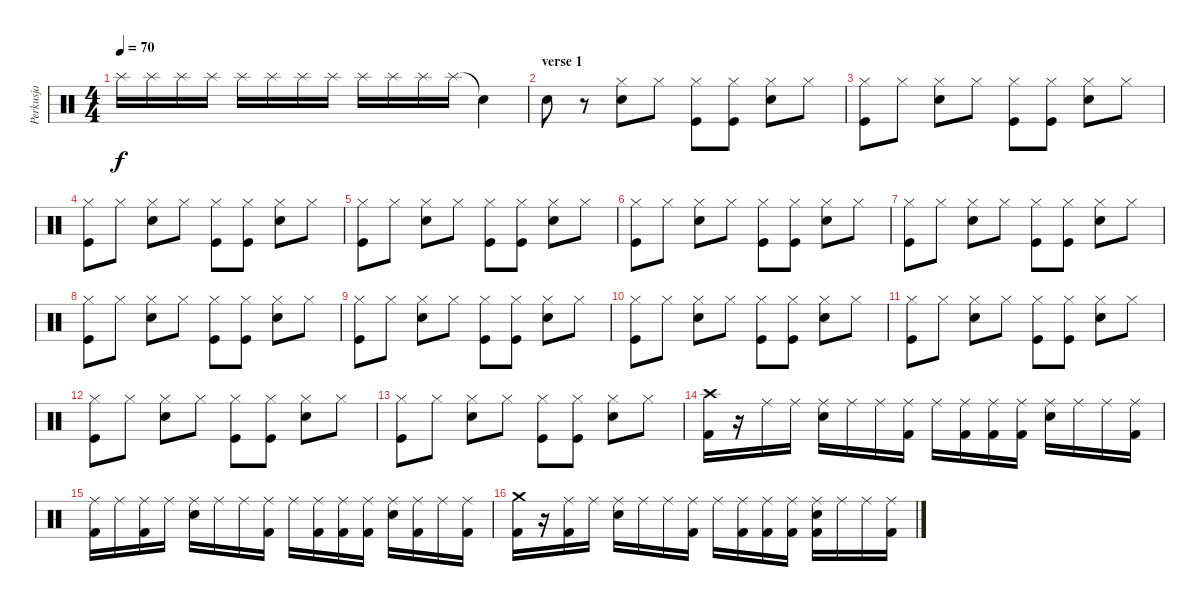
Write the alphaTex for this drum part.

\track ("Perkusja" "Perkusja") {instrument percussion}
\staff {score}
\articulation defaults
\ts (4 4)
\tempo 70
\clef neutral
\ks c "Splash (hit)".16{dy f volume 4} "Splash (hit)".16 "Splash (hit)".16{volume 6} "Splash (hit)".16 "Splash (hit)".16{volume 8} "Splash (hit)".16 "Splash (hit)".16{volume 10} "Splash (hit)".16 "Splash (hit)".16{volume 12} "Splash (hit)".16 "Splash (hit)".16{volume 14} "Splash (hit)".16 "Snare (hit)"{t}.4
|
\section ("" "verse 1")
"Electric Snare (hit)".8 r.8 ("Hi-Hat (closed)" "Electric Snare (hit)").8 "Hi-Hat (closed)".8 ("Hi-Hat (closed)" "Kick (hit)").8 ("Hi-Hat (closed)" "Kick (hit)").8 ("Hi-Hat (closed)" "Electric Snare (hit)").8 "Hi-Hat (closed)".8 |
("Hi-Hat (closed)" "Kick (hit)").8 "Hi-Hat (closed)".8 ("Hi-Hat (closed)" "Electric Snare (hit)").8 "Hi-Hat (closed)".8 ("Hi-Hat (closed)" "Kick (hit)").8 ("Hi-Hat (closed)" "Kick (hit)").8 ("Hi-Hat (closed)" "Electric Snare (hit)").8 "Hi-Hat (closed)".8 |
("Hi-Hat (closed)" "Kick (hit)").8 "Hi-Hat (closed)".8 ("Hi-Hat (closed)" "Electric Snare (hit)").8 "Hi-Hat (closed)".8 ("Hi-Hat (closed)" "Kick (hit)").8 ("Hi-Hat (closed)" "Kick (hit)").8 ("Hi-Hat (closed)" "Electric Snare (hit)").8 "Hi-Hat (closed)".8 |
("Hi-Hat (closed)" "Kick (hit)").8 "Hi-Hat (closed)".8 ("Hi-Hat (closed)" "Electric Snare (hit)").8 "Hi-Hat (closed)".8 ("Hi-Hat (closed)" "Kick (hit)").8 ("Hi-Hat (closed)" "Kick (hit)").8 ("Hi-Hat (closed)" "Electric Snare (hit)").8 "Hi-Hat (closed)".8 |
("Hi-Hat (closed)" "Kick (hit)").8 "Hi-Hat (closed)".8 ("Hi-Hat (closed)" "Electric Snare (hit)").8 "Hi-Hat (closed)".8 ("Hi-Hat (closed)" "Kick (hit)").8 ("Hi-Hat (closed)" "Kick (hit)").8 ("Hi-Hat (closed)" "Electric Snare (hit)").8 "Hi-Hat (closed)".8 |
("Hi-Hat (closed)" "Kick (hit)").8 "Hi-Hat (closed)".8 ("Hi-Hat (closed)" "Electric Snare (hit)").8 "Hi-Hat (closed)".8 ("Hi-Hat (closed)" "Kick (hit)").8 ("Hi-Hat (closed)" "Kick (hit)").8 ("Hi-Hat (closed)" "Electric Snare (hit)").8 "Hi-Hat (closed)".8 |
("Hi-Hat (closed)" "Kick (hit)").8 "Hi-Hat (closed)".8 ("Hi-Hat (closed)" "Electric Snare (hit)").8 "Hi-Hat (closed)".8 ("Hi-Hat (closed)" "Kick (hit)").8 ("Hi-Hat (closed)" "Kick (hit)").8 ("Hi-Hat (closed)" "Electric Snare (hit)").8 "Hi-Hat (closed)".8 |
("Hi-Hat (closed)" "Kick (hit)").8 "Hi-Hat (closed)".8 ("Hi-Hat (closed)" "Electric Snare (hit)").8 "Hi-Hat (closed)".8 ("Hi-Hat (closed)" "Kick (hit)").8 ("Hi-Hat (closed)" "Kick (hit)").8 ("Hi-Hat (closed)" "Electric Snare (hit)").8 "Hi-Hat (closed)".8 |
("Hi-Hat (closed)" "Kick (hit)").8 "Hi-Hat (closed)".8 ("Hi-Hat (closed)" "Electric Snare (hit)").8 "Hi-Hat (closed)".8 ("Hi-Hat (closed)" "Kick (hit)").8 ("Hi-Hat (closed)" "Kick (hit)").8 ("Hi-Hat (closed)" "Electric Snare (hit)").8 "Hi-Hat (closed)".8 |
("Hi-Hat (closed)" "Kick (hit)").8 "Hi-Hat (closed)".8 ("Hi-Hat (closed)" "Electric Snare (hit)").8 "Hi-Hat (closed)".8 ("Hi-Hat (closed)" "Kick (hit)").8 ("Hi-Hat (closed)" "Kick (hit)").8 ("Hi-Hat (closed)" "Electric Snare (hit)").8 "Hi-Hat (closed)".8 |
("Hi-Hat (closed)" "Kick (hit)").8 "Hi-Hat (closed)".8 ("Hi-Hat (closed)" "Electric Snare (hit)").8 "Hi-Hat (closed)".8 ("Hi-Hat (closed)" "Kick (hit)").8 ("Hi-Hat (closed)" "Kick (hit)").8 ("Hi-Hat (closed)" "Electric Snare (hit)").8 "Hi-Hat (closed)".8 |
("Hi-Hat (closed)" "Kick (hit)").8 "Hi-Hat (closed)".8 ("Hi-Hat (closed)" "Electric Snare (hit)").8 "Hi-Hat (closed)".8 ("Hi-Hat (closed)" "Kick (hit)").8 ("Hi-Hat (closed)" "Kick (hit)").8 ("Hi-Hat (closed)" "Electric Snare (hit)").8 "Hi-Hat (closed)".8 |
("Crash high (hit)" "Kick (hit) 2").16 r.16 "Ride (middle)".16 "Ride (middle)".16 ("Ride (middle)" "Electric Snare (hit)").16 "Ride (middle)".16 "Ride (middle)".16 ("Ride (middle)" "Kick (hit) 2").16 "Ride (middle)".16 ("Ride (middle)" "Kick (hit) 2").16 ("Ride (middle)" "Kick (hit) 2").16 ("Ride (middle)" "Kick (hit) 2").16 ("Ride (middle)" "Electric Snare (hit)").16 "Ride (middle)".16 "Ride (middle)".16 ("Ride (middle)" "Kick (hit) 2").16 |
("Ride (middle)" "Kick (hit) 2").16 "Ride (middle)".16 ("Ride (middle)" "Kick (hit) 2").16 "Ride (middle)".16 ("Ride (middle)" "Electric Snare (hit)").16 "Ride (middle)".16 "Ride (middle)".16 ("Ride (middle)" "Kick (hit) 2").16 "Ride (middle)".16 ("Ride (middle)" "Kick (hit) 2").16 ("Ride (middle)" "Kick (hit) 2").16 ("Ride (middle)" "Kick (hit) 2").16 ("Ride (middle)" "Electric Snare (hit)").16 ("Ride (middle)" "Kick (hit) 2").16 "Ride (middle)".16 ("Ride (middle)" "Kick (hit) 2").16 |
("Crash medium (hit)" "Kick (hit) 2").16 r.16 ("Ride (middle)" "Kick (hit) 2").16 "Ride (middle)".16 ("Ride (middle)" "Electric Snare (hit)").16 "Ride (middle)".16 "Ride (middle)".16 ("Ride (middle)" "Kick (hit) 2").16 "Ride (middle)".16 ("Ride (middle)" "Kick (hit) 2").16 ("Ride (middle)" "Kick (hit) 2").16 ("Ride (middle)" "Kick (hit) 2").16 ("Ride (middle)" "Electric Snare (hit)" "Kick (hit) 2").16 "Ride (middle)".16 "Ride (middle)".16 ("Ride (middle)" "Kick (hit) 2").16
